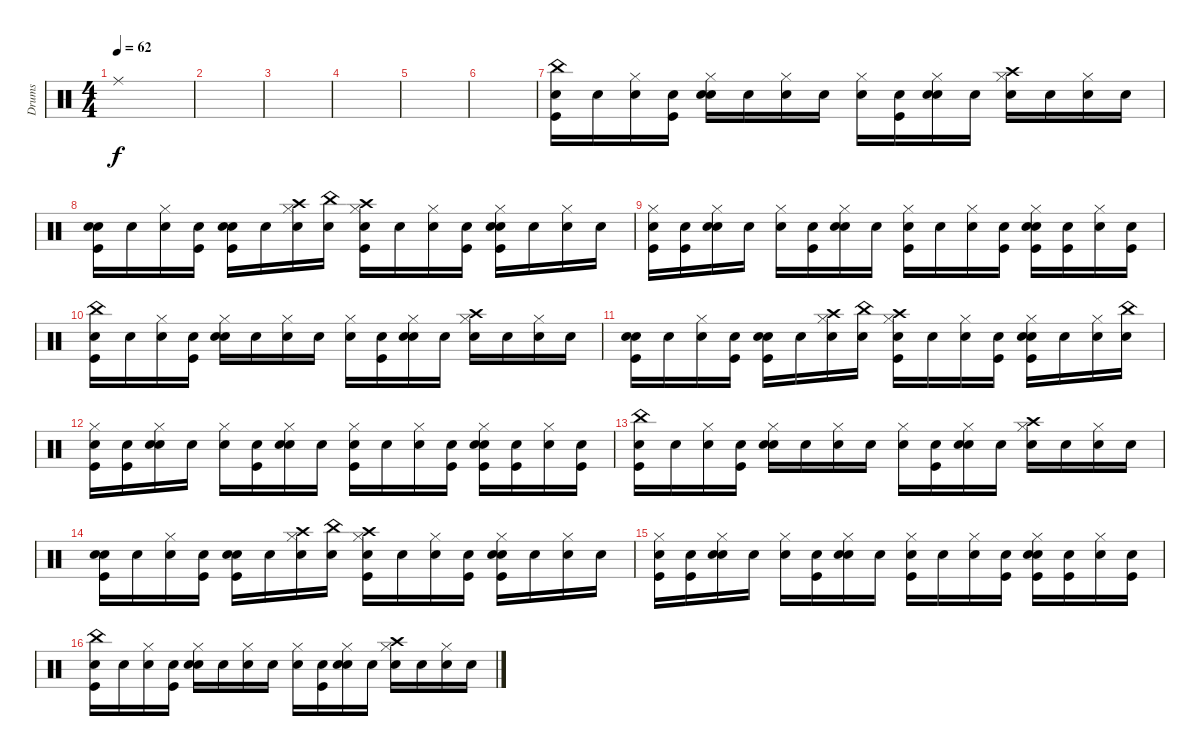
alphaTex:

\track ("Drums" "Drums") {instrument percussion}
\staff {score}
\articulation defaults
\ts (4 4)
\tempo 62
\clef neutral
\ks c "Ride (middle)".1{dy f}
|
|
|
|
|
|
("Snare (hit)" "China (hit)" "Kick (hit)").16 "Snare (hit)".16 ("Snare (hit)" "Hi-Hat (closed)").16 ("Snare (hit)" "Kick (hit)").16 ("Snare (hit)" "Snare (hit) 2" "Hi-Hat (closed)").16 "Snare (hit)".16 ("Snare (hit)" "Hi-Hat (closed)").16 "Snare (hit)".16 ("Snare (hit)" "Hi-Hat (closed)").16 ("Snare (hit)" "Kick (hit)").16 ("Snare (hit)" "Snare (hit) 2" "Hi-Hat (closed)").16 "Snare (hit)".16 ("Snare (hit)" "Crash high (hit)" "Hi-Hat (closed)").16 "Snare (hit)".16 ("Snare (hit)" "Hi-Hat (closed)").16 "Snare (hit)".16 |
("Snare (hit)" "Snare (hit) 2" "Kick (hit)").16 "Snare (hit)".16 ("Snare (hit)" "Hi-Hat (closed)").16 ("Snare (hit)" "Kick (hit)").16 ("Snare (hit)" "Snare (hit) 2" "Kick (hit)").16 "Snare (hit)".16 ("Snare (hit)" "Crash high (hit)" "Hi-Hat (closed)").16 ("Snare (hit)" "China (hit)").16 ("Snare (hit)" "Crash high (hit)" "Kick (hit)" "Hi-Hat (closed)").16 "Snare (hit)".16 ("Snare (hit)" "Hi-Hat (closed)").16 ("Snare (hit)" "Kick (hit)").16 ("Snare (hit)" "Snare (hit) 2" "Kick (hit)" "Hi-Hat (closed)").16 "Snare (hit)".16 ("Snare (hit)" "Hi-Hat (closed)").16 "Snare (hit)".16 |
("Snare (hit)" "Kick (hit)" "Hi-Hat (closed)").16 ("Snare (hit)" "Kick (hit)").16 ("Snare (hit)" "Snare (hit) 2" "Hi-Hat (closed)").16 "Snare (hit)".16 ("Snare (hit)" "Hi-Hat (closed)").16 ("Snare (hit)" "Kick (hit)").16 ("Snare (hit)" "Snare (hit) 2" "Hi-Hat (closed)").16 "Snare (hit)".16 ("Snare (hit)" "Kick (hit)" "Hi-Hat (closed)").16 "Snare (hit)".16 ("Snare (hit)" "Hi-Hat (closed)").16 ("Snare (hit)" "Kick (hit)").16 ("Snare (hit)" "Snare (hit) 2" "Kick (hit)" "Hi-Hat (closed)").16 ("Snare (hit)" "Kick (hit)").16 ("Snare (hit)" "Hi-Hat (closed)").16 ("Snare (hit)" "Kick (hit)").16 |
("Snare (hit)" "China (hit)" "Kick (hit)").16 "Snare (hit)".16 ("Snare (hit)" "Hi-Hat (closed)").16 ("Snare (hit)" "Kick (hit)").16 ("Snare (hit)" "Snare (hit) 2" "Hi-Hat (closed)").16 "Snare (hit)".16 ("Snare (hit)" "Hi-Hat (closed)").16 "Snare (hit)".16 ("Snare (hit)" "Hi-Hat (closed)").16 ("Snare (hit)" "Kick (hit)").16 ("Snare (hit)" "Snare (hit) 2" "Hi-Hat (closed)").16 "Snare (hit)".16 ("Snare (hit)" "Crash high (hit)" "Hi-Hat (closed)").16 "Snare (hit)".16 ("Snare (hit)" "Hi-Hat (closed)").16 "Snare (hit)".16 |
("Snare (hit)" "Snare (hit) 2" "Kick (hit)").16 "Snare (hit)".16 ("Snare (hit)" "Hi-Hat (closed)").16 ("Snare (hit)" "Kick (hit)").16 ("Snare (hit)" "Snare (hit) 2" "Kick (hit)").16 "Snare (hit)".16 ("Snare (hit)" "Crash high (hit)" "Hi-Hat (closed)").16 ("Snare (hit)" "China (hit)").16 ("Snare (hit)" "Crash high (hit)" "Kick (hit)" "Hi-Hat (closed)").16 "Snare (hit)".16 ("Snare (hit)" "Hi-Hat (closed)").16 ("Snare (hit)" "Kick (hit)").16 ("Snare (hit)" "Snare (hit) 2" "Kick (hit)" "Hi-Hat (closed)").16 "Snare (hit)".16 ("Snare (hit)" "Hi-Hat (closed)").16 ("Snare (hit)" "China (hit)").16 |
("Snare (hit)" "Kick (hit)" "Hi-Hat (closed)").16 ("Snare (hit)" "Kick (hit)").16 ("Snare (hit)" "Snare (hit) 2" "Hi-Hat (closed)").16 "Snare (hit)".16 ("Snare (hit)" "Hi-Hat (closed)").16 ("Snare (hit)" "Kick (hit)").16 ("Snare (hit)" "Snare (hit) 2" "Hi-Hat (closed)").16 "Snare (hit)".16 ("Snare (hit)" "Kick (hit)" "Hi-Hat (closed)").16 "Snare (hit)".16 ("Snare (hit)" "Hi-Hat (closed)").16 ("Snare (hit)" "Kick (hit)").16 ("Snare (hit)" "Snare (hit) 2" "Kick (hit)" "Hi-Hat (closed)").16 ("Snare (hit)" "Kick (hit)").16 ("Snare (hit)" "Hi-Hat (closed)").16 ("Snare (hit)" "Kick (hit)").16 |
("Snare (hit)" "China (hit)" "Kick (hit)").16 "Snare (hit)".16 ("Snare (hit)" "Hi-Hat (closed)").16 ("Snare (hit)" "Kick (hit)").16 ("Snare (hit)" "Snare (hit) 2" "Hi-Hat (closed)").16 "Snare (hit)".16 ("Snare (hit)" "Hi-Hat (closed)").16 "Snare (hit)".16 ("Snare (hit)" "Hi-Hat (closed)").16 ("Snare (hit)" "Kick (hit)").16 ("Snare (hit)" "Snare (hit) 2" "Hi-Hat (closed)").16 "Snare (hit)".16 ("Snare (hit)" "Crash high (hit)" "Hi-Hat (closed)").16 "Snare (hit)".16 ("Snare (hit)" "Hi-Hat (closed)").16 "Snare (hit)".16 |
("Snare (hit)" "Snare (hit) 2" "Kick (hit)").16 "Snare (hit)".16 ("Snare (hit)" "Hi-Hat (closed)").16 ("Snare (hit)" "Kick (hit)").16 ("Snare (hit)" "Snare (hit) 2" "Kick (hit)").16 "Snare (hit)".16 ("Snare (hit)" "Crash high (hit)" "Hi-Hat (closed)").16 ("Snare (hit)" "China (hit)").16 ("Snare (hit)" "Crash high (hit)" "Kick (hit)" "Hi-Hat (closed)").16 "Snare (hit)".16 ("Snare (hit)" "Hi-Hat (closed)").16 ("Snare (hit)" "Kick (hit)").16 ("Snare (hit)" "Snare (hit) 2" "Kick (hit)" "Hi-Hat (closed)").16 "Snare (hit)".16 ("Snare (hit)" "Hi-Hat (closed)").16 "Snare (hit)".16 |
("Snare (hit)" "Kick (hit)" "Hi-Hat (closed)").16 ("Snare (hit)" "Kick (hit)").16 ("Snare (hit)" "Snare (hit) 2" "Hi-Hat (closed)").16 "Snare (hit)".16 ("Snare (hit)" "Hi-Hat (closed)").16 ("Snare (hit)" "Kick (hit)").16 ("Snare (hit)" "Snare (hit) 2" "Hi-Hat (closed)").16 "Snare (hit)".16 ("Snare (hit)" "Kick (hit)" "Hi-Hat (closed)").16 "Snare (hit)".16 ("Snare (hit)" "Hi-Hat (closed)").16 ("Snare (hit)" "Kick (hit)").16 ("Snare (hit)" "Snare (hit) 2" "Kick (hit)" "Hi-Hat (closed)").16 ("Snare (hit)" "Kick (hit)").16 ("Snare (hit)" "Hi-Hat (closed)").16 ("Snare (hit)" "Kick (hit)").16 |
("Snare (hit)" "China (hit)" "Kick (hit)").16 "Snare (hit)".16 ("Snare (hit)" "Hi-Hat (closed)").16 ("Snare (hit)" "Kick (hit)").16 ("Snare (hit)" "Snare (hit) 2" "Hi-Hat (closed)").16 "Snare (hit)".16 ("Snare (hit)" "Hi-Hat (closed)").16 "Snare (hit)".16 ("Snare (hit)" "Hi-Hat (closed)").16 ("Snare (hit)" "Kick (hit)").16 ("Snare (hit)" "Snare (hit) 2" "Hi-Hat (closed)").16 "Snare (hit)".16 ("Snare (hit)" "Crash high (hit)" "Hi-Hat (closed)").16 "Snare (hit)".16 ("Snare (hit)" "Hi-Hat (closed)").16 "Snare (hit)".16
